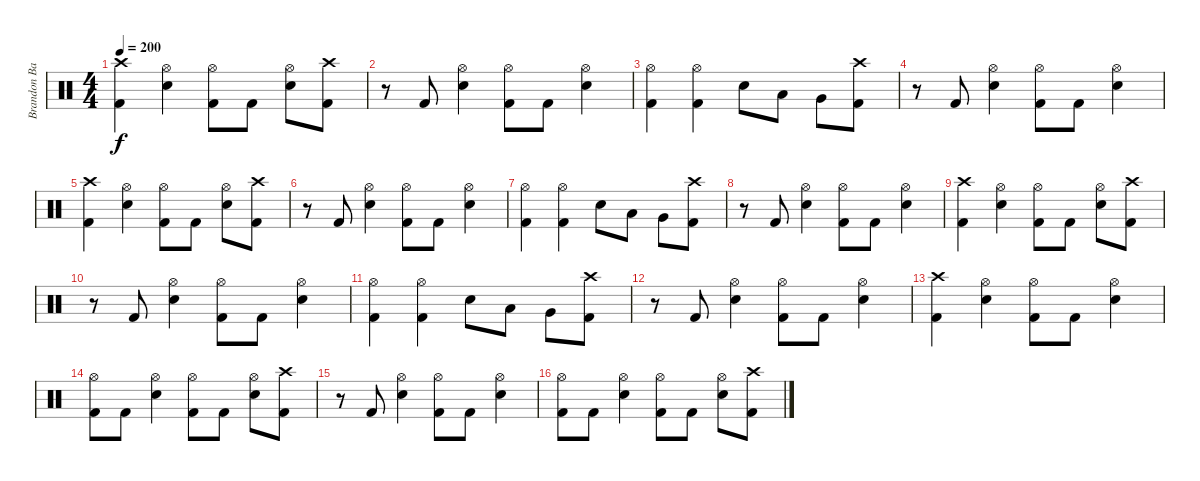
\track ("Brandon Barnes - Drums" "Brandon Ba") {instrument percussion}
\staff {score}
\articulation defaults
\ts (4 4)
\tempo 200
\clef neutral
\ks c
("Crash high (hit)" "Kick (hit) 2").4{dy f} ("Hi-Hat (open)" "Electric Snare (hit)").4 ("Hi-Hat (open)" "Kick (hit) 2").8 "Kick (hit) 2".8 ("Hi-Hat (open)" "Electric Snare (hit)").8 ("Crash high (hit)" "Kick (hit) 2").8 |
r.8 "Kick (hit) 2".8 ("Hi-Hat (open)" "Electric Snare (hit)").4 ("Hi-Hat (open)" "Kick (hit) 2").8 "Kick (hit) 2".8 ("Hi-Hat (open)" "Electric Snare (hit)").4 |
("Hi-Hat (open)" "Kick (hit) 2").4 ("Hi-Hat (open)" "Kick (hit) 2").4 "Electric Snare (hit)".8 "Low Tom (hit)".8 "Very Low Tom (hit)".8 ("Crash high (hit)" "Kick (hit) 2").8 |
r.8 "Kick (hit) 2".8 ("Hi-Hat (open)" "Electric Snare (hit)").4 ("Hi-Hat (open)" "Kick (hit) 2").8 "Kick (hit) 2".8 ("Hi-Hat (open)" "Electric Snare (hit)").4 |
("Crash high (hit)" "Kick (hit) 2").4 ("Hi-Hat (open)" "Electric Snare (hit)").4 ("Hi-Hat (open)" "Kick (hit) 2").8 "Kick (hit) 2".8 ("Hi-Hat (open)" "Electric Snare (hit)").8 ("Crash high (hit)" "Kick (hit) 2").8 |
r.8 "Kick (hit) 2".8 ("Hi-Hat (open)" "Electric Snare (hit)").4 ("Hi-Hat (open)" "Kick (hit) 2").8 "Kick (hit) 2".8 ("Hi-Hat (open)" "Electric Snare (hit)").4 |
("Hi-Hat (open)" "Kick (hit) 2").4 ("Hi-Hat (open)" "Kick (hit) 2").4 "Electric Snare (hit)".8 "Low Tom (hit)".8 "Very Low Tom (hit)".8 ("Crash high (hit)" "Kick (hit) 2").8 |
r.8 "Kick (hit) 2".8 ("Hi-Hat (open)" "Electric Snare (hit)").4 ("Hi-Hat (open)" "Kick (hit) 2").8 "Kick (hit) 2".8 ("Hi-Hat (open)" "Electric Snare (hit)").4 |
("Crash high (hit)" "Kick (hit) 2").4 ("Hi-Hat (open)" "Electric Snare (hit)").4 ("Hi-Hat (open)" "Kick (hit) 2").8 "Kick (hit) 2".8 ("Hi-Hat (open)" "Electric Snare (hit)").8 ("Crash high (hit)" "Kick (hit) 2").8 |
r.8 "Kick (hit) 2".8 ("Hi-Hat (open)" "Electric Snare (hit)").4 ("Hi-Hat (open)" "Kick (hit) 2").8 "Kick (hit) 2".8 ("Hi-Hat (open)" "Electric Snare (hit)").4 |
("Hi-Hat (open)" "Kick (hit) 2").4 ("Hi-Hat (open)" "Kick (hit) 2").4 "Electric Snare (hit)".8 "Low Tom (hit)".8 "Very Low Tom (hit)".8 ("Crash high (hit)" "Kick (hit) 2").8 |
r.8 "Kick (hit) 2".8 ("Hi-Hat (open)" "Electric Snare (hit)").4 ("Hi-Hat (open)" "Kick (hit) 2").8 "Kick (hit) 2".8 ("Hi-Hat (open)" "Electric Snare (hit)").4 |
("Crash high (hit)" "Kick (hit) 2").4 ("Hi-Hat (open)" "Electric Snare (hit)").4 ("Hi-Hat (open)" "Kick (hit) 2").8 "Kick (hit) 2".8 ("Hi-Hat (open)" "Electric Snare (hit)").4 |
("Hi-Hat (open)" "Kick (hit) 2").8 "Kick (hit) 2".8 ("Hi-Hat (open)" "Electric Snare (hit)").4 ("Hi-Hat (open)" "Kick (hit) 2").8 "Kick (hit) 2".8 ("Hi-Hat (open)" "Electric Snare (hit)").8 ("Crash high (hit)" "Kick (hit) 2").8 |
r.8 "Kick (hit) 2".8 ("Hi-Hat (open)" "Electric Snare (hit)").4 ("Hi-Hat (open)" "Kick (hit) 2").8 "Kick (hit) 2".8 ("Hi-Hat (open)" "Electric Snare (hit)").4 |
("Hi-Hat (open)" "Kick (hit) 2").8 "Kick (hit) 2".8 ("Hi-Hat (open)" "Electric Snare (hit)").4 ("Hi-Hat (open)" "Kick (hit) 2").8 "Kick (hit) 2".8 ("Hi-Hat (open)" "Electric Snare (hit)").8 ("Crash high (hit)" "Kick (hit) 2").8
